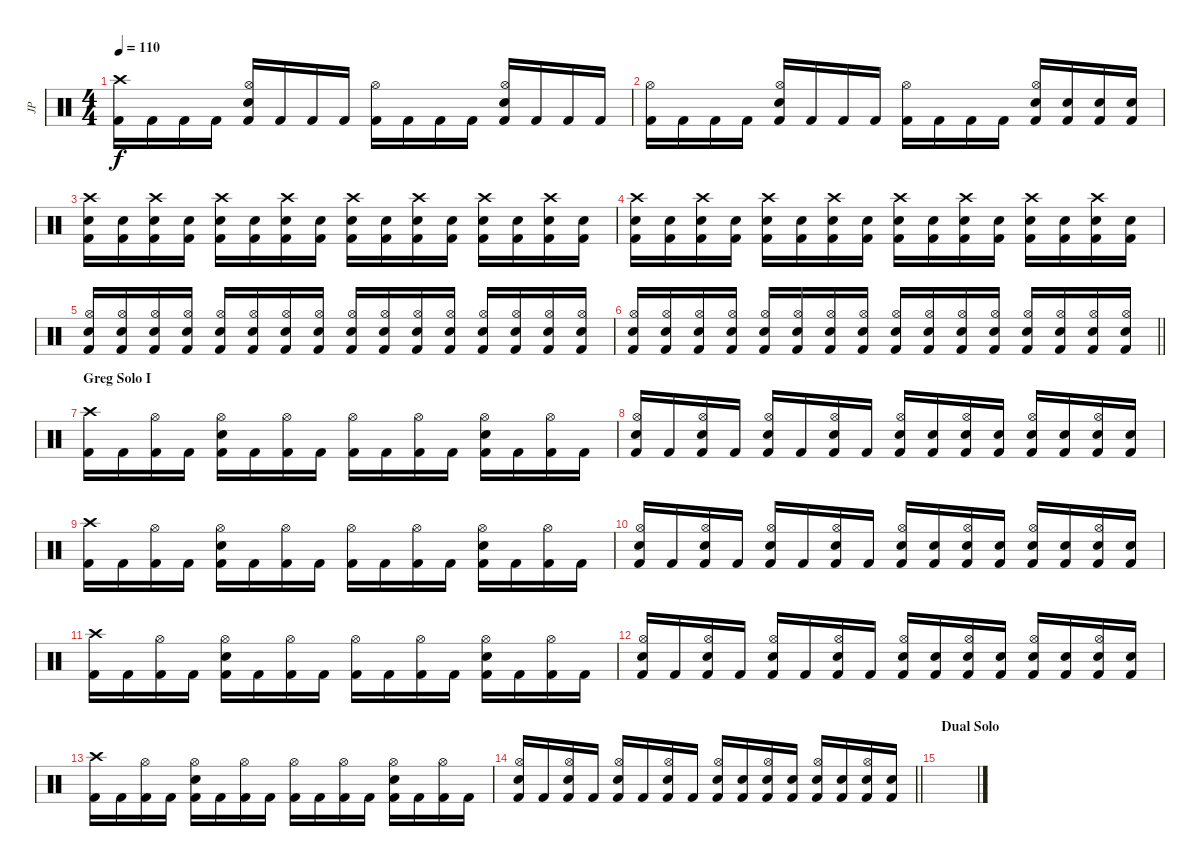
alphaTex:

\track ("JP" "JP") {instrument percussion}
\staff {score}
\articulation defaults
\ts (4 4)
\tempo 110
\clef neutral
\ks c
("Crash high (hit)" "Kick (hit) 2").16{dy f} "Kick (hit) 2".16 "Kick (hit) 2".16 "Kick (hit) 2".16 ("Hi-Hat (open)" "Electric Snare (hit)" "Kick (hit) 2").16 "Kick (hit) 2".16 "Kick (hit) 2".16 "Kick (hit) 2".16 ("Hi-Hat (open)" "Kick (hit) 2").16 "Kick (hit) 2".16 "Kick (hit) 2".16 "Kick (hit) 2".16 ("Hi-Hat (open)" "Electric Snare (hit)" "Kick (hit) 2").16 "Kick (hit) 2".16 "Kick (hit) 2".16 "Kick (hit) 2".16 |
("Hi-Hat (open)" "Kick (hit) 2").16 "Kick (hit) 2".16 "Kick (hit) 2".16 "Kick (hit) 2".16 ("Hi-Hat (open)" "Electric Snare (hit)" "Kick (hit) 2").16 "Kick (hit) 2".16 "Kick (hit) 2".16 "Kick (hit) 2".16 ("Hi-Hat (open)" "Kick (hit) 2").16 "Kick (hit) 2".16 "Kick (hit) 2".16 "Kick (hit) 2".16 ("Hi-Hat (open)" "Electric Snare (hit)" "Kick (hit) 2").16 ("Electric Snare (hit)" "Kick (hit) 2").16 ("Electric Snare (hit)" "Kick (hit) 2").16 ("Electric Snare (hit)" "Kick (hit) 2").16 |
("Crash high (hit)" "Electric Snare (hit)" "Kick (hit) 2").16 ("Electric Snare (hit)" "Kick (hit) 2").16 ("Crash high (hit)" "Electric Snare (hit)" "Kick (hit) 2").16 ("Electric Snare (hit)" "Kick (hit) 2").16 ("Crash high (hit)" "Electric Snare (hit)" "Kick (hit) 2").16 ("Electric Snare (hit)" "Kick (hit) 2").16 ("Crash high (hit)" "Electric Snare (hit)" "Kick (hit) 2").16 ("Electric Snare (hit)" "Kick (hit) 2").16 ("Crash high (hit)" "Electric Snare (hit)" "Kick (hit) 2").16 ("Electric Snare (hit)" "Kick (hit) 2").16 ("Crash high (hit)" "Electric Snare (hit)" "Kick (hit) 2").16 ("Electric Snare (hit)" "Kick (hit) 2").16 ("Crash high (hit)" "Electric Snare (hit)" "Kick (hit) 2").16 ("Electric Snare (hit)" "Kick (hit) 2").16 ("Crash high (hit)" "Electric Snare (hit)" "Kick (hit) 2").16 ("Electric Snare (hit)" "Kick (hit) 2").16 |
("Crash high (hit)" "Electric Snare (hit)" "Kick (hit) 2").16 ("Electric Snare (hit)" "Kick (hit) 2").16 ("Crash high (hit)" "Electric Snare (hit)" "Kick (hit) 2").16 ("Electric Snare (hit)" "Kick (hit) 2").16 ("Crash high (hit)" "Electric Snare (hit)" "Kick (hit) 2").16 ("Electric Snare (hit)" "Kick (hit) 2").16 ("Crash high (hit)" "Electric Snare (hit)" "Kick (hit) 2").16 ("Electric Snare (hit)" "Kick (hit) 2").16 ("Crash high (hit)" "Electric Snare (hit)" "Kick (hit) 2").16 ("Electric Snare (hit)" "Kick (hit) 2").16 ("Crash high (hit)" "Electric Snare (hit)" "Kick (hit) 2").16 ("Electric Snare (hit)" "Kick (hit) 2").16 ("Crash high (hit)" "Electric Snare (hit)" "Kick (hit) 2").16 ("Electric Snare (hit)" "Kick (hit) 2").16 ("Crash high (hit)" "Electric Snare (hit)" "Kick (hit) 2").16 ("Electric Snare (hit)" "Kick (hit) 2").16 |
("Hi-Hat (open)" "Electric Snare (hit)" "Kick (hit) 2").16 ("Hi-Hat (open)" "Electric Snare (hit)" "Kick (hit) 2").16 ("Hi-Hat (open)" "Electric Snare (hit)" "Kick (hit) 2").16 ("Hi-Hat (open)" "Electric Snare (hit)" "Kick (hit) 2").16 ("Hi-Hat (open)" "Electric Snare (hit)" "Kick (hit) 2").16 ("Hi-Hat (open)" "Electric Snare (hit)" "Kick (hit) 2").16 ("Hi-Hat (open)" "Electric Snare (hit)" "Kick (hit) 2").16 ("Hi-Hat (open)" "Electric Snare (hit)" "Kick (hit) 2").16 ("Hi-Hat (open)" "Electric Snare (hit)" "Kick (hit) 2").16 ("Hi-Hat (open)" "Electric Snare (hit)" "Kick (hit) 2").16 ("Hi-Hat (open)" "Electric Snare (hit)" "Kick (hit) 2").16 ("Hi-Hat (open)" "Electric Snare (hit)" "Kick (hit) 2").16 ("Hi-Hat (open)" "Electric Snare (hit)" "Kick (hit) 2").16 ("Hi-Hat (open)" "Electric Snare (hit)" "Kick (hit) 2").16 ("Hi-Hat (open)" "Electric Snare (hit)" "Kick (hit) 2").16 ("Hi-Hat (open)" "Electric Snare (hit)" "Kick (hit) 2").16 |
\barLineRight lightlight
("Hi-Hat (open)" "Electric Snare (hit)" "Kick (hit) 2").16 ("Hi-Hat (open)" "Electric Snare (hit)" "Kick (hit) 2").16 ("Hi-Hat (open)" "Electric Snare (hit)" "Kick (hit) 2").16 ("Hi-Hat (open)" "Electric Snare (hit)" "Kick (hit) 2").16 ("Hi-Hat (open)" "Electric Snare (hit)" "Kick (hit) 2").16 ("Hi-Hat (open)" "Electric Snare (hit)" "Kick (hit) 2").16 ("Hi-Hat (open)" "Electric Snare (hit)" "Kick (hit) 2").16 ("Hi-Hat (open)" "Electric Snare (hit)" "Kick (hit) 2").16 ("Hi-Hat (open)" "Electric Snare (hit)" "Kick (hit) 2").16 ("Hi-Hat (open)" "Electric Snare (hit)" "Kick (hit) 2").16 ("Hi-Hat (open)" "Electric Snare (hit)" "Kick (hit) 2").16 ("Hi-Hat (open)" "Electric Snare (hit)" "Kick (hit) 2").16 ("Hi-Hat (open)" "Electric Snare (hit)" "Kick (hit) 2").16 ("Hi-Hat (open)" "Electric Snare (hit)" "Kick (hit) 2").16 ("Hi-Hat (open)" "Electric Snare (hit)" "Kick (hit) 2").16 ("Hi-Hat (open)" "Electric Snare (hit)" "Kick (hit) 2").16 |
\section ("" "Greg Solo I")
("Crash high (hit)" "Kick (hit) 2").16 "Kick (hit) 2".16 ("Hi-Hat (open)" "Kick (hit) 2").16 "Kick (hit) 2".16 ("Hi-Hat (open)" "Electric Snare (hit)" "Kick (hit) 2").16 "Kick (hit) 2".16 ("Hi-Hat (open)" "Kick (hit) 2").16 "Kick (hit) 2".16 ("Hi-Hat (open)" "Kick (hit) 2").16 "Kick (hit) 2".16 ("Hi-Hat (open)" "Kick (hit) 2").16 "Kick (hit) 2".16 ("Hi-Hat (open)" "Electric Snare (hit)" "Kick (hit) 2").16 "Kick (hit) 2".16 ("Hi-Hat (open)" "Kick (hit) 2").16 "Kick (hit) 2".16 |
("Hi-Hat (open)" "Electric Snare (hit)" "Kick (hit) 2").16 "Kick (hit) 2".16 ("Hi-Hat (open)" "Electric Snare (hit)" "Kick (hit) 2").16 "Kick (hit) 2".16 ("Hi-Hat (open)" "Electric Snare (hit)" "Kick (hit) 2").16 "Kick (hit) 2".16 ("Hi-Hat (open)" "Electric Snare (hit)" "Kick (hit) 2").16 "Kick (hit) 2".16 ("Hi-Hat (open)" "Electric Snare (hit)" "Kick (hit) 2").16 ("Electric Snare (hit)" "Kick (hit) 2").16 ("Hi-Hat (open)" "Electric Snare (hit)" "Kick (hit) 2").16 ("Electric Snare (hit)" "Kick (hit) 2").16 ("Hi-Hat (open)" "Electric Snare (hit)" "Kick (hit) 2").16 ("Electric Snare (hit)" "Kick (hit) 2").16 ("Hi-Hat (open)" "Electric Snare (hit)" "Kick (hit) 2").16 ("Electric Snare (hit)" "Kick (hit) 2").16 |
("Crash high (hit)" "Kick (hit) 2").16 "Kick (hit) 2".16 ("Hi-Hat (open)" "Kick (hit) 2").16 "Kick (hit) 2".16 ("Hi-Hat (open)" "Electric Snare (hit)" "Kick (hit) 2").16 "Kick (hit) 2".16 ("Hi-Hat (open)" "Kick (hit) 2").16 "Kick (hit) 2".16 ("Hi-Hat (open)" "Kick (hit) 2").16 "Kick (hit) 2".16 ("Hi-Hat (open)" "Kick (hit) 2").16 "Kick (hit) 2".16 ("Hi-Hat (open)" "Electric Snare (hit)" "Kick (hit) 2").16 "Kick (hit) 2".16 ("Hi-Hat (open)" "Kick (hit) 2").16 "Kick (hit) 2".16 |
("Hi-Hat (open)" "Electric Snare (hit)" "Kick (hit) 2").16 "Kick (hit) 2".16 ("Hi-Hat (open)" "Electric Snare (hit)" "Kick (hit) 2").16 "Kick (hit) 2".16 ("Hi-Hat (open)" "Electric Snare (hit)" "Kick (hit) 2").16 "Kick (hit) 2".16 ("Hi-Hat (open)" "Electric Snare (hit)" "Kick (hit) 2").16 "Kick (hit) 2".16 ("Hi-Hat (open)" "Electric Snare (hit)" "Kick (hit) 2").16 ("Electric Snare (hit)" "Kick (hit) 2").16 ("Hi-Hat (open)" "Electric Snare (hit)" "Kick (hit) 2").16 ("Electric Snare (hit)" "Kick (hit) 2").16 ("Hi-Hat (open)" "Electric Snare (hit)" "Kick (hit) 2").16 ("Electric Snare (hit)" "Kick (hit) 2").16 ("Hi-Hat (open)" "Electric Snare (hit)" "Kick (hit) 2").16 ("Electric Snare (hit)" "Kick (hit) 2").16 |
("Crash high (hit)" "Kick (hit) 2").16 "Kick (hit) 2".16 ("Hi-Hat (open)" "Kick (hit) 2").16 "Kick (hit) 2".16 ("Hi-Hat (open)" "Electric Snare (hit)" "Kick (hit) 2").16 "Kick (hit) 2".16 ("Hi-Hat (open)" "Kick (hit) 2").16 "Kick (hit) 2".16 ("Hi-Hat (open)" "Kick (hit) 2").16 "Kick (hit) 2".16 ("Hi-Hat (open)" "Kick (hit) 2").16 "Kick (hit) 2".16 ("Hi-Hat (open)" "Electric Snare (hit)" "Kick (hit) 2").16 "Kick (hit) 2".16 ("Hi-Hat (open)" "Kick (hit) 2").16 "Kick (hit) 2".16 |
("Hi-Hat (open)" "Electric Snare (hit)" "Kick (hit) 2").16 "Kick (hit) 2".16 ("Hi-Hat (open)" "Electric Snare (hit)" "Kick (hit) 2").16 "Kick (hit) 2".16 ("Hi-Hat (open)" "Electric Snare (hit)" "Kick (hit) 2").16 "Kick (hit) 2".16 ("Hi-Hat (open)" "Electric Snare (hit)" "Kick (hit) 2").16 "Kick (hit) 2".16 ("Hi-Hat (open)" "Electric Snare (hit)" "Kick (hit) 2").16 ("Electric Snare (hit)" "Kick (hit) 2").16 ("Hi-Hat (open)" "Electric Snare (hit)" "Kick (hit) 2").16 ("Electric Snare (hit)" "Kick (hit) 2").16 ("Hi-Hat (open)" "Electric Snare (hit)" "Kick (hit) 2").16 ("Electric Snare (hit)" "Kick (hit) 2").16 ("Hi-Hat (open)" "Electric Snare (hit)" "Kick (hit) 2").16 ("Electric Snare (hit)" "Kick (hit) 2").16 |
("Crash high (hit)" "Kick (hit) 2").16 "Kick (hit) 2".16 ("Hi-Hat (open)" "Kick (hit) 2").16 "Kick (hit) 2".16 ("Hi-Hat (open)" "Electric Snare (hit)" "Kick (hit) 2").16 "Kick (hit) 2".16 ("Hi-Hat (open)" "Kick (hit) 2").16 "Kick (hit) 2".16 ("Hi-Hat (open)" "Kick (hit) 2").16 "Kick (hit) 2".16 ("Hi-Hat (open)" "Kick (hit) 2").16 "Kick (hit) 2".16 ("Hi-Hat (open)" "Electric Snare (hit)" "Kick (hit) 2").16 "Kick (hit) 2".16 ("Hi-Hat (open)" "Kick (hit) 2").16 "Kick (hit) 2".16 |
\barLineRight lightlight
("Hi-Hat (open)" "Electric Snare (hit)" "Kick (hit) 2").16 "Kick (hit) 2".16 ("Hi-Hat (open)" "Electric Snare (hit)" "Kick (hit) 2").16 "Kick (hit) 2".16 ("Hi-Hat (open)" "Electric Snare (hit)" "Kick (hit) 2").16 "Kick (hit) 2".16 ("Hi-Hat (open)" "Electric Snare (hit)" "Kick (hit) 2").16 "Kick (hit) 2".16 ("Hi-Hat (open)" "Electric Snare (hit)" "Kick (hit) 2").16 ("Electric Snare (hit)" "Kick (hit) 2").16 ("Hi-Hat (open)" "Electric Snare (hit)" "Kick (hit) 2").16 ("Electric Snare (hit)" "Kick (hit) 2").16 ("Hi-Hat (open)" "Electric Snare (hit)" "Kick (hit) 2").16 ("Electric Snare (hit)" "Kick (hit) 2").16 ("Hi-Hat (open)" "Electric Snare (hit)" "Kick (hit) 2").16 ("Electric Snare (hit)" "Kick (hit) 2").16 |
\section ("" "Dual Solo")
